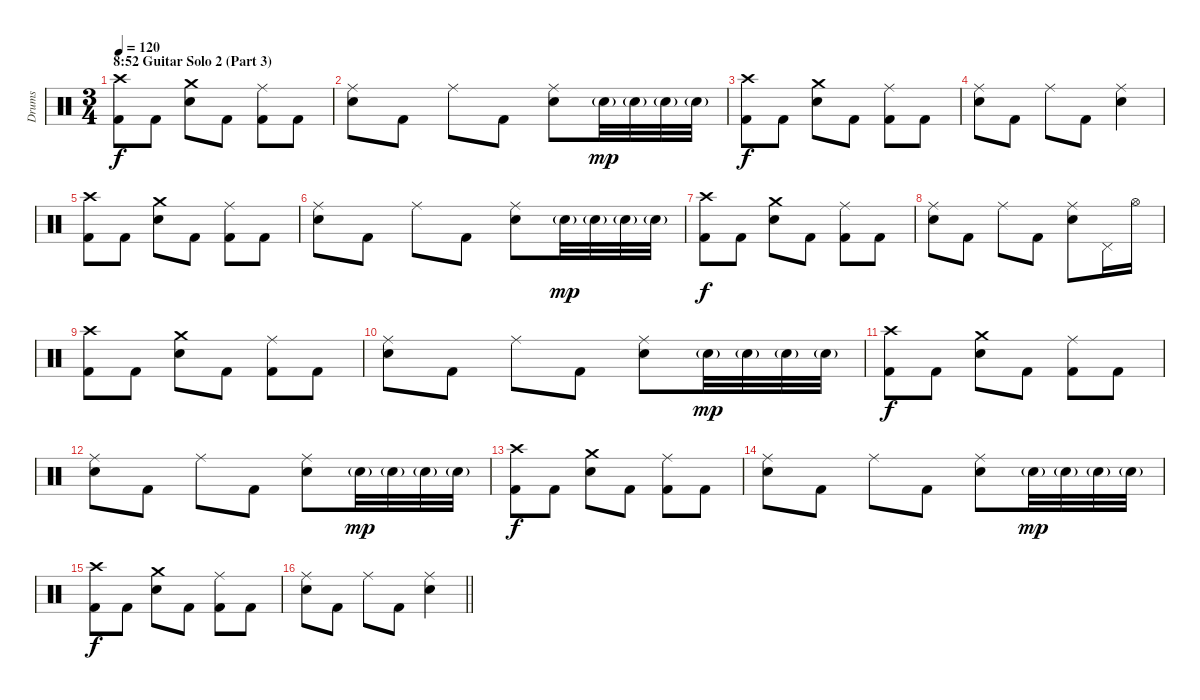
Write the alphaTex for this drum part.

\track ("Drums" "Drums") {instrument percussion}
\staff {score}
\articulation defaults
\ts (3 4)
\section ("" "8:52 Guitar Solo 2 (Part 3)")
\tempo 120
\clef neutral
\ks c
("Crash high (hit)" "Kick (hit) 2").8{dy f} "Kick (hit) 2".8 ("Crash medium (hit)" "Snare (hit) 2").8 "Kick (hit) 2".8 ("Ride (middle)" "Kick (hit) 2").8 "Kick (hit) 2".8 |
("Ride (middle)" "Snare (hit) 2").8 "Kick (hit) 2".8 "Ride (middle)".8 "Kick (hit) 2".8 ("Ride (middle)" "Snare (hit) 2").8 "Snare (hit) 2"{g}.32{dy mp} "Snare (hit) 2"{g}.32 "Snare (hit) 2"{g}.32 "Snare (hit) 2"{g}.32 |
("Crash high (hit)" "Kick (hit) 2").8{dy f} "Kick (hit) 2".8 ("Crash medium (hit)" "Snare (hit) 2").8 "Kick (hit) 2".8 ("Ride (middle)" "Kick (hit) 2").8 "Kick (hit) 2".8 |
("Ride (middle)" "Snare (hit) 2").8 "Kick (hit) 2".8 "Ride (middle)".8 "Kick (hit) 2".8 ("Ride (middle)" "Snare (hit) 2").4 |
("Crash high (hit)" "Kick (hit) 2").8 "Kick (hit) 2".8 ("Crash medium (hit)" "Snare (hit) 2").8 "Kick (hit) 2".8 ("Ride (middle)" "Kick (hit) 2").8 "Kick (hit) 2".8 |
("Ride (middle)" "Snare (hit) 2").8 "Kick (hit) 2".8 "Ride (middle)".8 "Kick (hit) 2".8 ("Ride (middle)" "Snare (hit) 2").8 "Snare (hit) 2"{g}.32{dy mp} "Snare (hit) 2"{g}.32 "Snare (hit) 2"{g}.32 "Snare (hit) 2"{g}.32 |
("Crash high (hit)" "Kick (hit) 2").8{dy f} "Kick (hit) 2".8 ("Crash medium (hit)" "Snare (hit) 2").8 "Kick (hit) 2".8 ("Ride (middle)" "Kick (hit) 2").8 "Kick (hit) 2".8 |
("Ride (middle)" "Snare (hit) 2").8 "Kick (hit) 2".8 "Ride (middle)".8 "Kick (hit) 2".8 ("Ride (middle)" "Snare (hit) 2").8 "Pedal Hi-Hat (hit)".16 "Hi-Hat (open)".16 |
("Crash high (hit)" "Kick (hit) 2").8 "Kick (hit) 2".8 ("Crash medium (hit)" "Snare (hit) 2").8 "Kick (hit) 2".8 ("Ride (middle)" "Kick (hit) 2").8 "Kick (hit) 2".8 |
("Ride (middle)" "Snare (hit) 2").8 "Kick (hit) 2".8 "Ride (middle)".8 "Kick (hit) 2".8 ("Ride (middle)" "Snare (hit) 2").8 "Snare (hit) 2"{g}.32{dy mp} "Snare (hit) 2"{g}.32 "Snare (hit) 2"{g}.32 "Snare (hit) 2"{g}.32 |
("Crash high (hit)" "Kick (hit) 2").8{dy f} "Kick (hit) 2".8 ("Crash medium (hit)" "Snare (hit) 2").8 "Kick (hit) 2".8 ("Ride (middle)" "Kick (hit) 2").8 "Kick (hit) 2".8 |
("Ride (middle)" "Snare (hit) 2").8 "Kick (hit) 2".8 "Ride (middle)".8 "Kick (hit) 2".8 ("Ride (middle)" "Snare (hit) 2").8 "Snare (hit) 2"{g}.32{dy mp} "Snare (hit) 2"{g}.32 "Snare (hit) 2"{g}.32 "Snare (hit) 2"{g}.32 |
("Crash high (hit)" "Kick (hit) 2").8{dy f} "Kick (hit) 2".8 ("Crash medium (hit)" "Snare (hit) 2").8 "Kick (hit) 2".8 ("Ride (middle)" "Kick (hit) 2").8 "Kick (hit) 2".8 |
("Ride (middle)" "Snare (hit) 2").8 "Kick (hit) 2".8 "Ride (middle)".8 "Kick (hit) 2".8 ("Ride (middle)" "Snare (hit) 2").8 "Snare (hit) 2"{g}.32{dy mp} "Snare (hit) 2"{g}.32 "Snare (hit) 2"{g}.32 "Snare (hit) 2"{g}.32 |
("Crash high (hit)" "Kick (hit) 2").8{dy f} "Kick (hit) 2".8 ("Crash medium (hit)" "Snare (hit) 2").8 "Kick (hit) 2".8 ("Ride (middle)" "Kick (hit) 2").8 "Kick (hit) 2".8 |
\barLineRight lightlight
("Ride (middle)" "Snare (hit) 2").8 "Kick (hit) 2".8 "Ride (middle)".8 "Kick (hit) 2".8 ("Ride (middle)" "Snare (hit) 2").4
